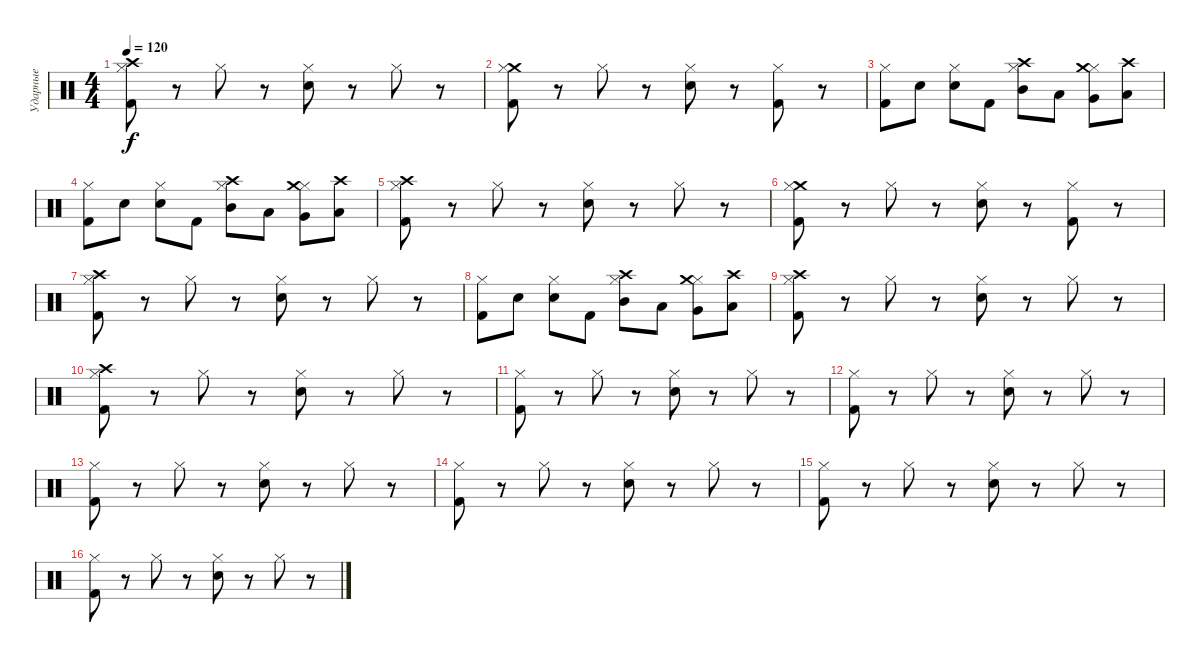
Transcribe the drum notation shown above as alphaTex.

\track ("Ударные" "Ударные") {instrument percussion}
\staff {score}
\articulation defaults
\ts (4 4)
\tempo 120
\clef neutral
\ks c
("Crash high (hit)" "Hi-Hat (closed)" "Kick (hit) 2").8{dy f} r.8 "Hi-Hat (closed)".8 r.8 ("Snare (hit) 2" "Hi-Hat (closed)").8 r.8 "Hi-Hat (closed)".8 r.8 |
("Crash medium (hit)" "Hi-Hat (closed)" "Kick (hit) 2").8 r.8 "Hi-Hat (closed)".8 r.8 ("Snare (hit) 2" "Hi-Hat (closed)").8 r.8 ("Hi-Hat (closed)" "Kick (hit) 2").8 r.8 |
("Hi-Hat (closed)" "Kick (hit) 2").8 "Snare (hit) 2".8 ("Snare (hit) 2" "Hi-Hat (closed)").8 "Kick (hit) 2".8 ("Mid Tom (hit)" "Hi-Hat (closed)" "Crash high (hit)").8 "Low Tom (hit)".8 ("Very Low Tom (hit)" "Hi-Hat (closed)" "Crash medium (hit)").8 ("Low Floor Tom (hit)" "Crash high (hit)").8 |
("Hi-Hat (closed)" "Kick (hit) 2").8 "Snare (hit) 2".8 ("Snare (hit) 2" "Hi-Hat (closed)").8 "Kick (hit) 2".8 ("Mid Tom (hit)" "Hi-Hat (closed)" "Crash high (hit)").8 "Low Tom (hit)".8 ("Very Low Tom (hit)" "Hi-Hat (closed)" "Crash medium (hit)").8 ("Low Floor Tom (hit)" "Crash high (hit)").8 |
("Crash high (hit)" "Hi-Hat (closed)" "Kick (hit) 2").8 r.8 "Hi-Hat (closed)".8 r.8 ("Snare (hit) 2" "Hi-Hat (closed)").8 r.8 "Hi-Hat (closed)".8 r.8 |
("Crash medium (hit)" "Hi-Hat (closed)" "Kick (hit) 2").8 r.8 "Hi-Hat (closed)".8 r.8 ("Snare (hit) 2" "Hi-Hat (closed)").8 r.8 ("Hi-Hat (closed)" "Kick (hit) 2").8 r.8 |
("Crash high (hit)" "Hi-Hat (closed)" "Kick (hit) 2").8 r.8 "Hi-Hat (closed)".8 r.8 ("Snare (hit) 2" "Hi-Hat (closed)").8 r.8 "Hi-Hat (closed)".8 r.8 |
("Hi-Hat (closed)" "Kick (hit) 2").8 "Snare (hit) 2".8 ("Snare (hit) 2" "Hi-Hat (closed)").8 "Kick (hit) 2".8 ("Mid Tom (hit)" "Hi-Hat (closed)" "Crash high (hit)").8 "Low Tom (hit)".8 ("Very Low Tom (hit)" "Hi-Hat (closed)" "Crash medium (hit)").8 ("Low Floor Tom (hit)" "Crash high (hit)").8 |
("Crash high (hit)" "Hi-Hat (closed)" "Kick (hit) 2").8 r.8 "Hi-Hat (closed)".8 r.8 ("Snare (hit) 2" "Hi-Hat (closed)").8 r.8 "Hi-Hat (closed)".8 r.8 |
("Crash high (hit)" "Hi-Hat (closed)" "Kick (hit) 2").8 r.8 "Hi-Hat (closed)".8 r.8 ("Snare (hit) 2" "Hi-Hat (closed)").8 r.8 "Hi-Hat (closed)".8 r.8 |
("Hi-Hat (closed)" "Kick (hit) 2").8 r.8 "Hi-Hat (closed)".8 r.8 ("Snare (hit) 2" "Hi-Hat (closed)").8 r.8 "Hi-Hat (closed)".8 r.8 |
("Hi-Hat (closed)" "Kick (hit) 2").8 r.8 "Hi-Hat (closed)".8 r.8 ("Snare (hit) 2" "Hi-Hat (closed)").8 r.8 "Hi-Hat (closed)".8 r.8 |
("Hi-Hat (closed)" "Kick (hit) 2").8 r.8 "Hi-Hat (closed)".8 r.8 ("Snare (hit) 2" "Hi-Hat (closed)").8 r.8 "Hi-Hat (closed)".8 r.8 |
("Hi-Hat (closed)" "Kick (hit) 2").8 r.8 "Hi-Hat (closed)".8 r.8 ("Snare (hit) 2" "Hi-Hat (closed)").8 r.8 "Hi-Hat (closed)".8 r.8 |
("Hi-Hat (closed)" "Kick (hit) 2").8 r.8 "Hi-Hat (closed)".8 r.8 ("Snare (hit) 2" "Hi-Hat (closed)").8 r.8 "Hi-Hat (closed)".8 r.8 |
("Hi-Hat (closed)" "Kick (hit) 2").8 r.8 "Hi-Hat (closed)".8 r.8 ("Snare (hit) 2" "Hi-Hat (closed)").8 r.8 "Hi-Hat (closed)".8 r.8
